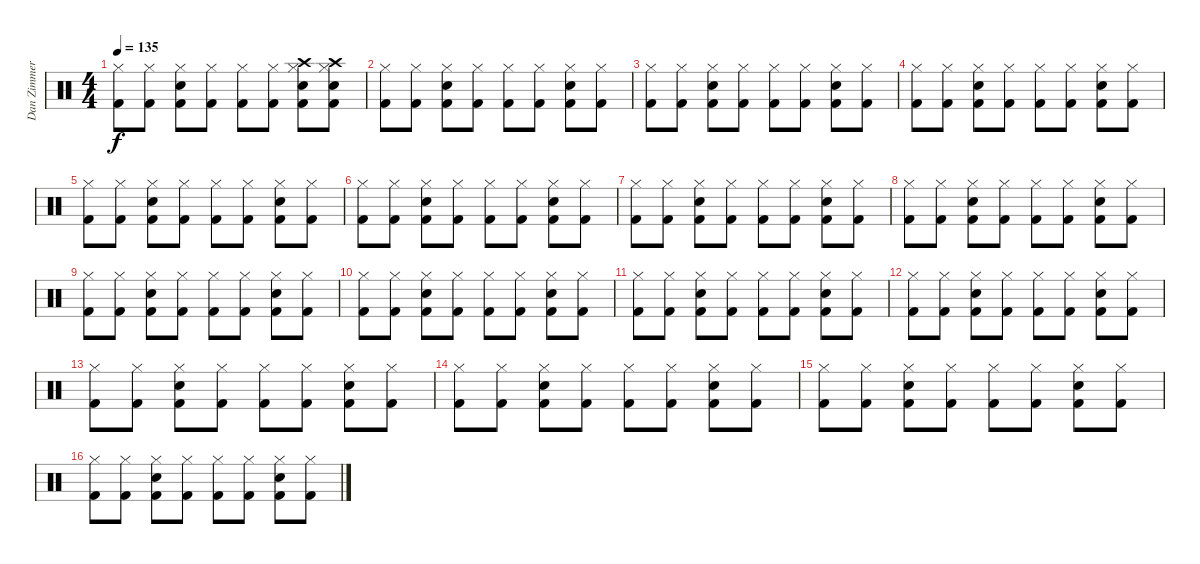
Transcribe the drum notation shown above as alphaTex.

\track ("Dan Zimmerman" "Dan Zimmer") {instrument percussion}
\staff {score}
\articulation defaults
\ts (4 4)
\tempo 135
\clef neutral
\ks c
("Hi-Hat (closed)" "Kick (hit) 2").8{dy f} ("Hi-Hat (closed)" "Kick (hit) 2").8 ("Snare (hit) 2" "Hi-Hat (closed)" "Kick (hit) 2").8 ("Hi-Hat (closed)" "Kick (hit) 2").8 ("Hi-Hat (closed)" "Kick (hit) 2").8 ("Hi-Hat (closed)" "Kick (hit) 2").8 ("Snare (hit) 2" "Hi-Hat (closed)" "Kick (hit) 2" "Crash high (hit)").8 ("Snare (hit) 2" "Hi-Hat (closed)" "Kick (hit) 2" "Crash high (hit)").8 |
("Hi-Hat (closed)" "Kick (hit) 2").8 ("Hi-Hat (closed)" "Kick (hit) 2").8 ("Snare (hit) 2" "Hi-Hat (closed)" "Kick (hit) 2").8 ("Hi-Hat (closed)" "Kick (hit) 2").8 ("Hi-Hat (closed)" "Kick (hit) 2").8 ("Hi-Hat (closed)" "Kick (hit) 2").8 ("Snare (hit) 2" "Hi-Hat (closed)" "Kick (hit) 2").8 ("Hi-Hat (closed)" "Kick (hit) 2").8 |
("Hi-Hat (closed)" "Kick (hit) 2").8 ("Hi-Hat (closed)" "Kick (hit) 2").8 ("Snare (hit) 2" "Hi-Hat (closed)" "Kick (hit) 2").8 ("Hi-Hat (closed)" "Kick (hit) 2").8 ("Hi-Hat (closed)" "Kick (hit) 2").8 ("Hi-Hat (closed)" "Kick (hit) 2").8 ("Snare (hit) 2" "Hi-Hat (closed)" "Kick (hit) 2").8 ("Hi-Hat (closed)" "Kick (hit) 2").8 |
("Hi-Hat (closed)" "Kick (hit) 2").8 ("Hi-Hat (closed)" "Kick (hit) 2").8 ("Snare (hit) 2" "Hi-Hat (closed)" "Kick (hit) 2").8 ("Hi-Hat (closed)" "Kick (hit) 2").8 ("Hi-Hat (closed)" "Kick (hit) 2").8 ("Hi-Hat (closed)" "Kick (hit) 2").8 ("Snare (hit) 2" "Hi-Hat (closed)" "Kick (hit) 2").8 ("Hi-Hat (closed)" "Kick (hit) 2").8 |
("Hi-Hat (closed)" "Kick (hit) 2").8 ("Hi-Hat (closed)" "Kick (hit) 2").8 ("Snare (hit) 2" "Hi-Hat (closed)" "Kick (hit) 2").8 ("Hi-Hat (closed)" "Kick (hit) 2").8 ("Hi-Hat (closed)" "Kick (hit) 2").8 ("Hi-Hat (closed)" "Kick (hit) 2").8 ("Snare (hit) 2" "Hi-Hat (closed)" "Kick (hit) 2").8 ("Hi-Hat (closed)" "Kick (hit) 2").8 |
("Hi-Hat (closed)" "Kick (hit) 2").8 ("Hi-Hat (closed)" "Kick (hit) 2").8 ("Snare (hit) 2" "Hi-Hat (closed)" "Kick (hit) 2").8 ("Hi-Hat (closed)" "Kick (hit) 2").8 ("Hi-Hat (closed)" "Kick (hit) 2").8 ("Hi-Hat (closed)" "Kick (hit) 2").8 ("Snare (hit) 2" "Hi-Hat (closed)" "Kick (hit) 2").8 ("Hi-Hat (closed)" "Kick (hit) 2").8 |
("Hi-Hat (closed)" "Kick (hit) 2").8 ("Hi-Hat (closed)" "Kick (hit) 2").8 ("Snare (hit) 2" "Hi-Hat (closed)" "Kick (hit) 2").8 ("Hi-Hat (closed)" "Kick (hit) 2").8 ("Hi-Hat (closed)" "Kick (hit) 2").8 ("Hi-Hat (closed)" "Kick (hit) 2").8 ("Snare (hit) 2" "Hi-Hat (closed)" "Kick (hit) 2").8 ("Hi-Hat (closed)" "Kick (hit) 2").8 |
("Hi-Hat (closed)" "Kick (hit) 2").8 ("Hi-Hat (closed)" "Kick (hit) 2").8 ("Snare (hit) 2" "Hi-Hat (closed)" "Kick (hit) 2").8 ("Hi-Hat (closed)" "Kick (hit) 2").8 ("Hi-Hat (closed)" "Kick (hit) 2").8 ("Hi-Hat (closed)" "Kick (hit) 2").8 ("Snare (hit) 2" "Hi-Hat (closed)" "Kick (hit) 2").8 ("Hi-Hat (closed)" "Kick (hit) 2").8 |
("Hi-Hat (closed)" "Kick (hit) 2").8 ("Hi-Hat (closed)" "Kick (hit) 2").8 ("Snare (hit) 2" "Hi-Hat (closed)" "Kick (hit) 2").8 ("Hi-Hat (closed)" "Kick (hit) 2").8 ("Hi-Hat (closed)" "Kick (hit) 2").8 ("Hi-Hat (closed)" "Kick (hit) 2").8 ("Snare (hit) 2" "Hi-Hat (closed)" "Kick (hit) 2").8 ("Hi-Hat (closed)" "Kick (hit) 2").8 |
("Hi-Hat (closed)" "Kick (hit) 2").8 ("Hi-Hat (closed)" "Kick (hit) 2").8 ("Snare (hit) 2" "Hi-Hat (closed)" "Kick (hit) 2").8 ("Hi-Hat (closed)" "Kick (hit) 2").8 ("Hi-Hat (closed)" "Kick (hit) 2").8 ("Hi-Hat (closed)" "Kick (hit) 2").8 ("Snare (hit) 2" "Hi-Hat (closed)" "Kick (hit) 2").8 ("Hi-Hat (closed)" "Kick (hit) 2").8 |
("Hi-Hat (closed)" "Kick (hit) 2").8 ("Hi-Hat (closed)" "Kick (hit) 2").8 ("Snare (hit) 2" "Hi-Hat (closed)" "Kick (hit) 2").8 ("Hi-Hat (closed)" "Kick (hit) 2").8 ("Hi-Hat (closed)" "Kick (hit) 2").8 ("Hi-Hat (closed)" "Kick (hit) 2").8 ("Snare (hit) 2" "Hi-Hat (closed)" "Kick (hit) 2").8 ("Hi-Hat (closed)" "Kick (hit) 2").8 |
("Hi-Hat (closed)" "Kick (hit) 2").8 ("Hi-Hat (closed)" "Kick (hit) 2").8 ("Snare (hit) 2" "Hi-Hat (closed)" "Kick (hit) 2").8 ("Hi-Hat (closed)" "Kick (hit) 2").8 ("Hi-Hat (closed)" "Kick (hit) 2").8 ("Hi-Hat (closed)" "Kick (hit) 2").8 ("Snare (hit) 2" "Hi-Hat (closed)" "Kick (hit) 2").8 ("Hi-Hat (closed)" "Kick (hit) 2").8 |
("Hi-Hat (closed)" "Kick (hit) 2").8 ("Hi-Hat (closed)" "Kick (hit) 2").8 ("Snare (hit) 2" "Hi-Hat (closed)" "Kick (hit) 2").8 ("Hi-Hat (closed)" "Kick (hit) 2").8 ("Hi-Hat (closed)" "Kick (hit) 2").8 ("Hi-Hat (closed)" "Kick (hit) 2").8 ("Snare (hit) 2" "Hi-Hat (closed)" "Kick (hit) 2").8 ("Hi-Hat (closed)" "Kick (hit) 2").8 |
("Hi-Hat (closed)" "Kick (hit) 2").8 ("Hi-Hat (closed)" "Kick (hit) 2").8 ("Snare (hit) 2" "Hi-Hat (closed)" "Kick (hit) 2").8 ("Hi-Hat (closed)" "Kick (hit) 2").8 ("Hi-Hat (closed)" "Kick (hit) 2").8 ("Hi-Hat (closed)" "Kick (hit) 2").8 ("Snare (hit) 2" "Hi-Hat (closed)" "Kick (hit) 2").8 ("Hi-Hat (closed)" "Kick (hit) 2").8 |
("Hi-Hat (closed)" "Kick (hit) 2").8 ("Hi-Hat (closed)" "Kick (hit) 2").8 ("Snare (hit) 2" "Hi-Hat (closed)" "Kick (hit) 2").8 ("Hi-Hat (closed)" "Kick (hit) 2").8 ("Hi-Hat (closed)" "Kick (hit) 2").8 ("Hi-Hat (closed)" "Kick (hit) 2").8 ("Snare (hit) 2" "Hi-Hat (closed)" "Kick (hit) 2").8 ("Hi-Hat (closed)" "Kick (hit) 2").8 |
("Hi-Hat (closed)" "Kick (hit) 2").8 ("Hi-Hat (closed)" "Kick (hit) 2").8 ("Snare (hit) 2" "Hi-Hat (closed)" "Kick (hit) 2").8 ("Hi-Hat (closed)" "Kick (hit) 2").8 ("Hi-Hat (closed)" "Kick (hit) 2").8 ("Hi-Hat (closed)" "Kick (hit) 2").8 ("Snare (hit) 2" "Hi-Hat (closed)" "Kick (hit) 2").8 ("Hi-Hat (closed)" "Kick (hit) 2").8
